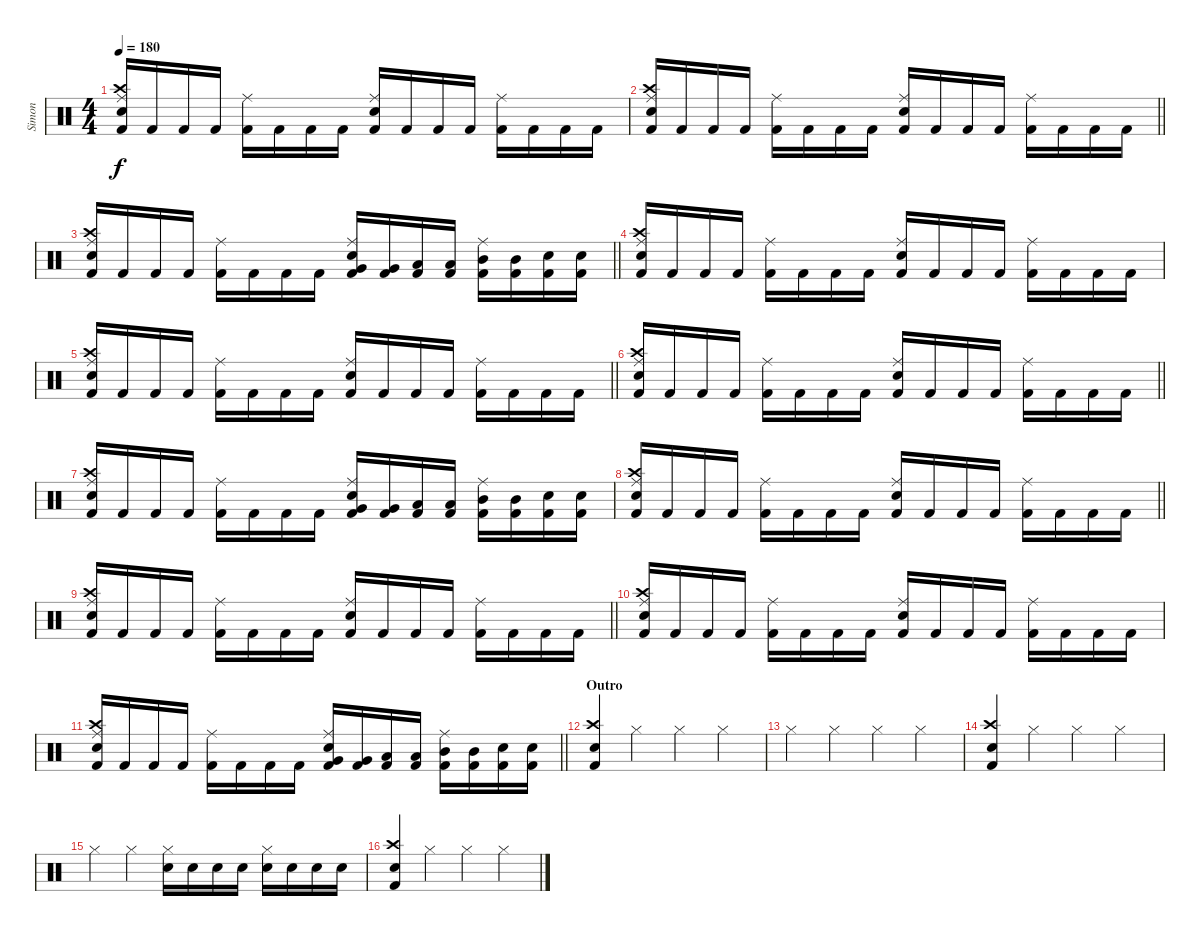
\track ("Simon" "Simon") {instrument percussion}
\staff {score}
\articulation defaults
\ts (4 4)
\tempo 180
\clef neutral
\ks c
("Electric Snare (hit)" "Crash high (hit)" "Ride (middle)" "Kick (hit) 2").16{dy f} "Kick (hit) 2".16 "Kick (hit) 2".16 "Kick (hit) 2".16 ("Ride (middle)" "Kick (hit) 2").16 "Kick (hit) 2".16 "Kick (hit) 2".16 "Kick (hit) 2".16 ("Electric Snare (hit)" "Ride (middle)" "Kick (hit) 2").16 "Kick (hit) 2".16 "Kick (hit) 2".16 "Kick (hit) 2".16 ("Ride (middle)" "Kick (hit) 2").16 "Kick (hit) 2".16 "Kick (hit) 2".16 "Kick (hit) 2".16 |
\barLineRight lightlight
("Electric Snare (hit)" "Crash high (hit)" "Ride (middle)" "Kick (hit) 2").16 "Kick (hit) 2".16 "Kick (hit) 2".16 "Kick (hit) 2".16 ("Ride (middle)" "Kick (hit) 2").16 "Kick (hit) 2".16 "Kick (hit) 2".16 "Kick (hit) 2".16 ("Electric Snare (hit)" "Ride (middle)" "Kick (hit) 2").16 "Kick (hit) 2".16 "Kick (hit) 2".16 "Kick (hit) 2".16 ("Ride (middle)" "Kick (hit) 2").16 "Kick (hit) 2".16 "Kick (hit) 2".16 "Kick (hit) 2".16 |
\barLineRight lightlight
("Electric Snare (hit)" "Crash high (hit)" "Ride (middle)" "Kick (hit) 2").16 "Kick (hit) 2".16 "Kick (hit) 2".16 "Kick (hit) 2".16 ("Ride (middle)" "Kick (hit) 2").16 "Kick (hit) 2".16 "Kick (hit) 2".16 "Kick (hit) 2".16 ("Electric Snare (hit)" "Ride (middle)" "Very Low Tom (hit)" "Kick (hit) 2").16 ("Very Low Tom (hit)" "Kick (hit) 2").16 ("Low Tom (hit)" "Kick (hit) 2").16 ("Low Tom (hit)" "Kick (hit) 2").16 ("Ride (middle)" "Mid Tom (hit)" "Kick (hit) 2").16 ("Mid Tom (hit)" "Kick (hit) 2").16 ("Electric Snare (hit)" "Kick (hit) 2").16 ("Electric Snare (hit)" "Kick (hit) 2").16 |
("Electric Snare (hit)" "Crash high (hit)" "Ride (middle)" "Kick (hit) 2").16 "Kick (hit) 2".16 "Kick (hit) 2".16 "Kick (hit) 2".16 ("Ride (middle)" "Kick (hit) 2").16 "Kick (hit) 2".16 "Kick (hit) 2".16 "Kick (hit) 2".16 ("Electric Snare (hit)" "Ride (middle)" "Kick (hit) 2").16 "Kick (hit) 2".16 "Kick (hit) 2".16 "Kick (hit) 2".16 ("Ride (middle)" "Kick (hit) 2").16 "Kick (hit) 2".16 "Kick (hit) 2".16 "Kick (hit) 2".16 |
\barLineRight lightlight
("Electric Snare (hit)" "Crash high (hit)" "Ride (middle)" "Kick (hit) 2").16 "Kick (hit) 2".16 "Kick (hit) 2".16 "Kick (hit) 2".16 ("Ride (middle)" "Kick (hit) 2").16 "Kick (hit) 2".16 "Kick (hit) 2".16 "Kick (hit) 2".16 ("Electric Snare (hit)" "Ride (middle)" "Kick (hit) 2").16 "Kick (hit) 2".16 "Kick (hit) 2".16 "Kick (hit) 2".16 ("Ride (middle)" "Kick (hit) 2").16 "Kick (hit) 2".16 "Kick (hit) 2".16 "Kick (hit) 2".16 |
\barLineRight lightlight
("Electric Snare (hit)" "Crash high (hit)" "Ride (middle)" "Kick (hit) 2").16 "Kick (hit) 2".16 "Kick (hit) 2".16 "Kick (hit) 2".16 ("Ride (middle)" "Kick (hit) 2").16 "Kick (hit) 2".16 "Kick (hit) 2".16 "Kick (hit) 2".16 ("Electric Snare (hit)" "Ride (middle)" "Kick (hit) 2").16 "Kick (hit) 2".16 "Kick (hit) 2".16 "Kick (hit) 2".16 ("Ride (middle)" "Kick (hit) 2").16 "Kick (hit) 2".16 "Kick (hit) 2".16 "Kick (hit) 2".16 |
("Electric Snare (hit)" "Crash high (hit)" "Ride (middle)" "Kick (hit) 2").16 "Kick (hit) 2".16 "Kick (hit) 2".16 "Kick (hit) 2".16 ("Ride (middle)" "Kick (hit) 2").16 "Kick (hit) 2".16 "Kick (hit) 2".16 "Kick (hit) 2".16 ("Electric Snare (hit)" "Ride (middle)" "Very Low Tom (hit)" "Kick (hit) 2").16 ("Very Low Tom (hit)" "Kick (hit) 2").16 ("Low Tom (hit)" "Kick (hit) 2").16 ("Low Tom (hit)" "Kick (hit) 2").16 ("Ride (middle)" "Mid Tom (hit)" "Kick (hit) 2").16 ("Mid Tom (hit)" "Kick (hit) 2").16 ("Electric Snare (hit)" "Kick (hit) 2").16 ("Electric Snare (hit)" "Kick (hit) 2").16 |
\barLineRight lightlight
("Electric Snare (hit)" "Crash high (hit)" "Ride (middle)" "Kick (hit) 2").16 "Kick (hit) 2".16 "Kick (hit) 2".16 "Kick (hit) 2".16 ("Ride (middle)" "Kick (hit) 2").16 "Kick (hit) 2".16 "Kick (hit) 2".16 "Kick (hit) 2".16 ("Electric Snare (hit)" "Ride (middle)" "Kick (hit) 2").16 "Kick (hit) 2".16 "Kick (hit) 2".16 "Kick (hit) 2".16 ("Ride (middle)" "Kick (hit) 2").16 "Kick (hit) 2".16 "Kick (hit) 2".16 "Kick (hit) 2".16 |
\barLineRight lightlight
("Electric Snare (hit)" "Crash high (hit)" "Ride (middle)" "Kick (hit) 2").16 "Kick (hit) 2".16 "Kick (hit) 2".16 "Kick (hit) 2".16 ("Ride (middle)" "Kick (hit) 2").16 "Kick (hit) 2".16 "Kick (hit) 2".16 "Kick (hit) 2".16 ("Electric Snare (hit)" "Ride (middle)" "Kick (hit) 2").16 "Kick (hit) 2".16 "Kick (hit) 2".16 "Kick (hit) 2".16 ("Ride (middle)" "Kick (hit) 2").16 "Kick (hit) 2".16 "Kick (hit) 2".16 "Kick (hit) 2".16 |
("Electric Snare (hit)" "Crash high (hit)" "Ride (middle)" "Kick (hit) 2").16 "Kick (hit) 2".16 "Kick (hit) 2".16 "Kick (hit) 2".16 ("Ride (middle)" "Kick (hit) 2").16 "Kick (hit) 2".16 "Kick (hit) 2".16 "Kick (hit) 2".16 ("Electric Snare (hit)" "Ride (middle)" "Kick (hit) 2").16 "Kick (hit) 2".16 "Kick (hit) 2".16 "Kick (hit) 2".16 ("Ride (middle)" "Kick (hit) 2").16 "Kick (hit) 2".16 "Kick (hit) 2".16 "Kick (hit) 2".16 |
\barLineRight lightlight
("Electric Snare (hit)" "Crash high (hit)" "Ride (middle)" "Kick (hit) 2").16 "Kick (hit) 2".16 "Kick (hit) 2".16 "Kick (hit) 2".16 ("Ride (middle)" "Kick (hit) 2").16 "Kick (hit) 2".16 "Kick (hit) 2".16 "Kick (hit) 2".16 ("Electric Snare (hit)" "Ride (middle)" "Very Low Tom (hit)" "Kick (hit) 2").16 ("Very Low Tom (hit)" "Kick (hit) 2").16 ("Low Tom (hit)" "Kick (hit) 2").16 ("Low Tom (hit)" "Kick (hit) 2").16 ("Ride (middle)" "Mid Tom (hit)" "Kick (hit) 2").16 ("Mid Tom (hit)" "Kick (hit) 2").16 ("Electric Snare (hit)" "Kick (hit) 2").16 ("Electric Snare (hit)" "Kick (hit) 2").16 |
\section ("" "Outro")
("Crash high (hit)" "Electric Snare (hit)" "Kick (hit) 2").4 "Hi-Hat (closed)".4 "Hi-Hat (closed)".4 "Hi-Hat (closed)".4 |
"Hi-Hat (closed)".4 "Hi-Hat (closed)".4 "Hi-Hat (closed)".4 "Hi-Hat (closed)".4 |
("Crash high (hit)" "Electric Snare (hit)" "Kick (hit) 2").4 "Hi-Hat (closed)".4 "Hi-Hat (closed)".4 "Hi-Hat (closed)".4 |
"Hi-Hat (closed)".4 "Hi-Hat (closed)".4 ("Electric Snare (hit)" "Hi-Hat (closed)").16 "Electric Snare (hit)".16 "Electric Snare (hit)".16 "Electric Snare (hit)".16 ("Electric Snare (hit)" "Hi-Hat (closed)").16 "Electric Snare (hit)".16 "Electric Snare (hit)".16 "Electric Snare (hit)".16 |
("Crash high (hit)" "Electric Snare (hit)" "Kick (hit) 2").4 "Hi-Hat (closed)".4 "Hi-Hat (closed)".4 "Hi-Hat (closed)".4
